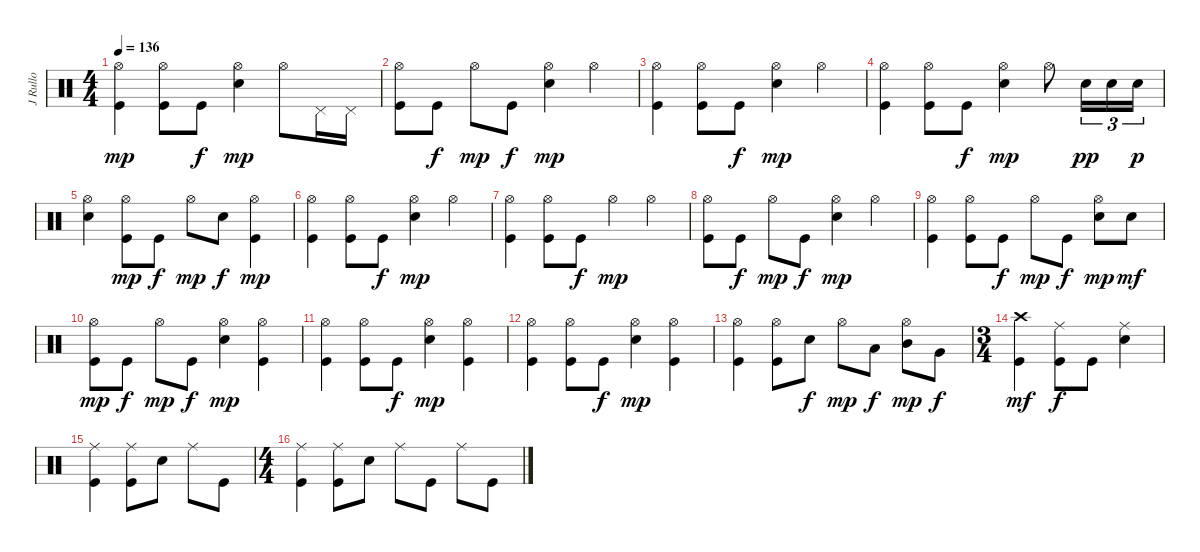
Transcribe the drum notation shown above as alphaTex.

\track ("J Rullo" "J Rullo") {instrument percussion}
\staff {score}
\articulation defaults
\ts (4 4)
\tempo 136
\clef neutral
\ks c
("Hi-Hat (open)" "Kick (hit)").4{dy mp} ("Hi-Hat (open)" "Kick (hit)").8 "Kick (hit)".8{dy f} ("Hi-Hat (open)" "Electric Snare (hit)").4{dy mp} "Hi-Hat (open)".8 "Pedal Hi-Hat (hit)".16 "Pedal Hi-Hat (hit)".16 |
("Hi-Hat (open)" "Kick (hit)").8 "Kick (hit)".8{dy f} "Hi-Hat (open)".8{dy mp} "Kick (hit)".8{dy f} ("Hi-Hat (open)" "Electric Snare (hit)").4{dy mp} "Hi-Hat (open)".4 |
("Hi-Hat (open)" "Kick (hit)").4 ("Hi-Hat (open)" "Kick (hit)").8 "Kick (hit)".8{dy f} ("Hi-Hat (open)" "Electric Snare (hit)").4{dy mp} "Hi-Hat (open)".4 |
("Hi-Hat (open)" "Kick (hit)").4 ("Hi-Hat (open)" "Kick (hit)").8 "Kick (hit)".8{dy f} ("Hi-Hat (open)" "Electric Snare (hit)").4{dy mp} "Hi-Hat (open)".8 "Snare (hit) 2".16{tu (3 2) dy pp} "Snare (hit) 2".16{tu (3 2)} "Snare (hit) 2".16{tu (3 2) dy p} |
("Hi-Hat (open)" "Snare (hit) 2").4 ("Hi-Hat (open)" "Kick (hit)").8{dy mp} "Kick (hit)".8{dy f} "Hi-Hat (open)".8{dy mp} "Electric Snare (hit)".8{dy f} ("Hi-Hat (open)" "Kick (hit)").4{dy mp} |
("Hi-Hat (open)" "Kick (hit)").4 ("Hi-Hat (open)" "Kick (hit)").8 "Kick (hit)".8{dy f} ("Hi-Hat (open)" "Electric Snare (hit)").4{dy mp} "Hi-Hat (open)".4 |
("Hi-Hat (open)" "Kick (hit)").4 ("Hi-Hat (open)" "Kick (hit)").8 "Kick (hit)".8{dy f} "Hi-Hat (open)".4{dy mp} "Hi-Hat (open)".4 |
("Hi-Hat (open)" "Kick (hit)").8 "Kick (hit)".8{dy f} "Hi-Hat (open)".8{dy mp} "Kick (hit)".8{dy f} ("Hi-Hat (open)" "Electric Snare (hit)").4{dy mp} "Hi-Hat (open)".4 |
("Hi-Hat (open)" "Kick (hit)").4 ("Hi-Hat (open)" "Kick (hit)").8 "Kick (hit)".8{dy f} "Hi-Hat (open)".8{dy mp} "Kick (hit)".8{dy f} ("Hi-Hat (open)" "Electric Snare (hit)").8{dy mp} "Electric Snare (hit)".8{dy mf} |
("Hi-Hat (open)" "Kick (hit)").8{dy mp} "Kick (hit)".8{dy f} "Hi-Hat (open)".8{dy mp} "Kick (hit)".8{dy f} ("Hi-Hat (open)" "Electric Snare (hit)").4{dy mp} ("Hi-Hat (open)" "Kick (hit)").4 |
("Hi-Hat (open)" "Kick (hit)").4 ("Hi-Hat (open)" "Kick (hit)").8 "Kick (hit)".8{dy f} ("Hi-Hat (open)" "Electric Snare (hit)").4{dy mp} ("Hi-Hat (open)" "Kick (hit)").4 |
("Hi-Hat (open)" "Kick (hit)").4 ("Hi-Hat (open)" "Kick (hit)").8 "Kick (hit)".8{dy f} ("Hi-Hat (open)" "Electric Snare (hit)").4{dy mp} ("Hi-Hat (open)" "Kick (hit)").4 |
("Hi-Hat (open)" "Kick (hit)").4 ("Hi-Hat (open)" "Kick (hit)").8 "Electric Snare (hit)".8{dy f} "Hi-Hat (open)".8{dy mp} "Low Tom (hit)".8{dy f} ("Hi-Hat (open)" "Mid Tom (hit)").8{dy mp} "Very Low Tom (hit)".8{dy f} |
\ts (3 4)
("Crash high (hit)" "Kick (hit)").4{dy mf} ("Ride (middle)" "Kick (hit)").8{dy f} "Kick (hit)".8 ("Ride (middle)" "Electric Snare (hit)").4 |
("Ride (middle)" "Kick (hit)").4 ("Ride (middle)" "Kick (hit)").8 "Electric Snare (hit)".8 "Ride (middle)".8 "Kick (hit)".8 |
\ts (4 4)
("Ride (middle)" "Kick (hit)").4 ("Ride (middle)" "Kick (hit)").8 "Electric Snare (hit)".8 "Ride (middle)".8 "Kick (hit)".8 "Ride (middle)".8 "Kick (hit)".8
